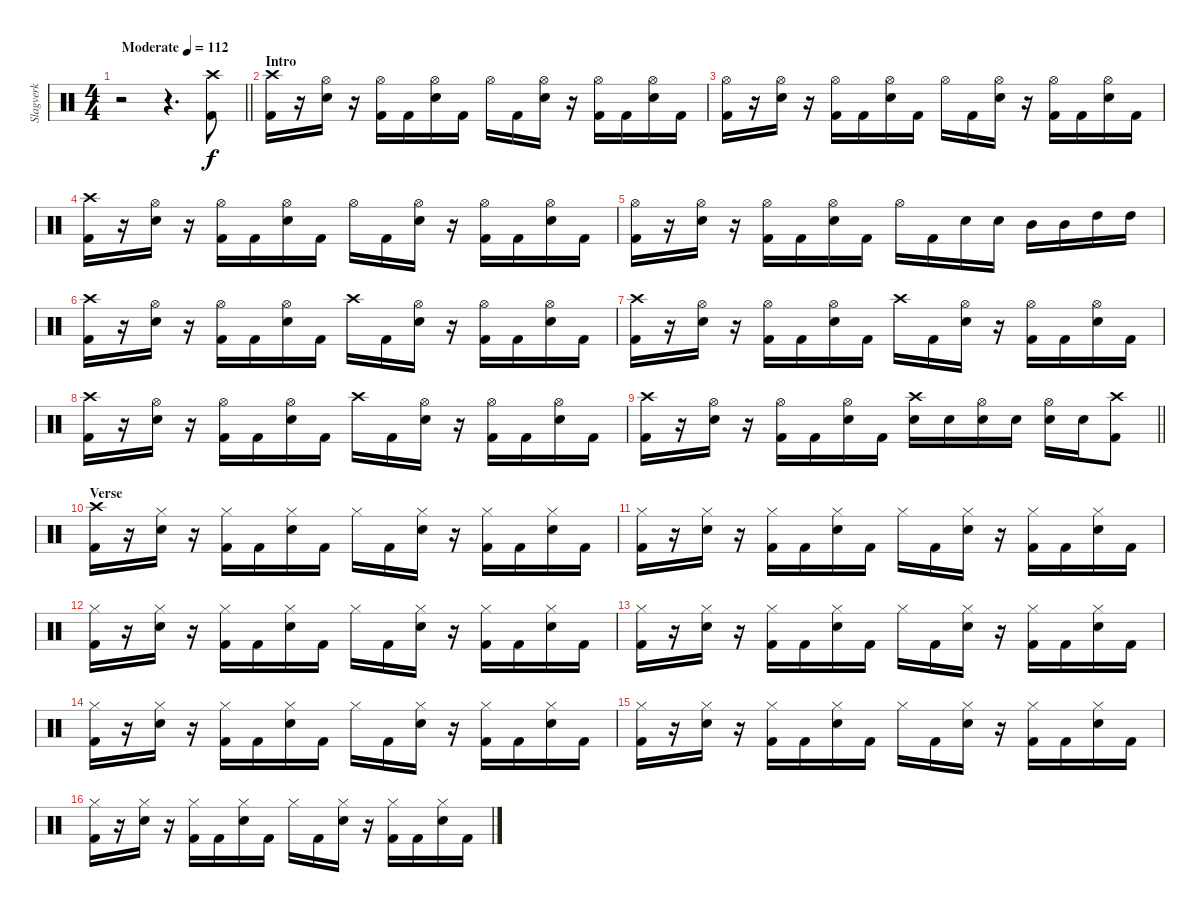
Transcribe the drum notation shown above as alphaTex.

\track ("Slagverk" "Slagverk") {instrument percussion}
\staff {score}
\articulation defaults
\ts (4 4)
\tempo (112 "Moderate")
\clef neutral
\barLineRight lightlight
\ks c
r.2{dy f} r.4{d} ("Crash high (hit)" "Kick (hit) 2").8 |
\section ("" "Intro")
("Crash high (hit)" "Kick (hit) 2").16 r.16 ("Hi-Hat (open)" "Snare (hit) 2").16 r.16 ("Hi-Hat (open)" "Kick (hit) 2").16 "Kick (hit) 2".16 ("Hi-Hat (open)" "Snare (hit) 2").16 "Kick (hit) 2".16 "Hi-Hat (open)".16 "Kick (hit) 2".16 ("Hi-Hat (open)" "Snare (hit) 2").16 r.16 ("Hi-Hat (open)" "Kick (hit) 2").16 "Kick (hit) 2".16 ("Hi-Hat (open)" "Snare (hit) 2").16 "Kick (hit) 2".16 |
("Hi-Hat (open)" "Kick (hit) 2").16 r.16 ("Hi-Hat (open)" "Snare (hit) 2").16 r.16 ("Hi-Hat (open)" "Kick (hit) 2").16 "Kick (hit) 2".16 ("Hi-Hat (open)" "Snare (hit) 2").16 "Kick (hit) 2".16 "Hi-Hat (open)".16 "Kick (hit) 2".16 ("Hi-Hat (open)" "Snare (hit) 2").16 r.16 ("Hi-Hat (open)" "Kick (hit) 2").16 "Kick (hit) 2".16 ("Hi-Hat (open)" "Snare (hit) 2").16 "Kick (hit) 2".16 |
("Crash high (hit)" "Kick (hit) 2").16 r.16 ("Hi-Hat (open)" "Snare (hit) 2").16 r.16 ("Hi-Hat (open)" "Kick (hit) 2").16 "Kick (hit) 2".16 ("Hi-Hat (open)" "Snare (hit) 2").16 "Kick (hit) 2".16 "Hi-Hat (open)".16 "Kick (hit) 2".16 ("Hi-Hat (open)" "Snare (hit) 2").16 r.16 ("Hi-Hat (open)" "Kick (hit) 2").16 "Kick (hit) 2".16 ("Hi-Hat (open)" "Snare (hit) 2").16 "Kick (hit) 2".16 |
("Hi-Hat (open)" "Kick (hit) 2").16 r.16 ("Hi-Hat (open)" "Snare (hit) 2").16 r.16 ("Hi-Hat (open)" "Kick (hit) 2").16 "Kick (hit) 2".16 ("Hi-Hat (open)" "Snare (hit) 2").16 "Kick (hit) 2".16 "Hi-Hat (open)".16 "Kick (hit) 2".16 "Electric Snare (hit)".16 "Electric Snare (hit)".16 "Mid Tom (hit)".16 "Mid Tom (hit)".16 "High Tom (hit)".16 "High Tom (hit)".16 |
("Crash high (hit)" "Kick (hit) 2").16 r.16 ("Hi-Hat (open)" "Snare (hit) 2").16 r.16 ("Hi-Hat (open)" "Kick (hit) 2").16 "Kick (hit) 2".16 ("Hi-Hat (open)" "Snare (hit) 2").16 "Kick (hit) 2".16 "Crash high (hit)".16 "Kick (hit) 2".16 ("Hi-Hat (open)" "Snare (hit) 2").16 r.16 ("Hi-Hat (open)" "Kick (hit) 2").16 "Kick (hit) 2".16 ("Hi-Hat (open)" "Snare (hit) 2").16 "Kick (hit) 2".16 |
("Crash high (hit)" "Kick (hit) 2").16 r.16 ("Hi-Hat (open)" "Snare (hit) 2").16 r.16 ("Hi-Hat (open)" "Kick (hit) 2").16 "Kick (hit) 2".16 ("Hi-Hat (open)" "Snare (hit) 2").16 "Kick (hit) 2".16 "Crash high (hit)".16 "Kick (hit) 2".16 ("Hi-Hat (open)" "Snare (hit) 2").16 r.16 ("Hi-Hat (open)" "Kick (hit) 2").16 "Kick (hit) 2".16 ("Hi-Hat (open)" "Snare (hit) 2").16 "Kick (hit) 2".16 |
("Crash high (hit)" "Kick (hit) 2").16 r.16 ("Hi-Hat (open)" "Snare (hit) 2").16 r.16 ("Hi-Hat (open)" "Kick (hit) 2").16 "Kick (hit) 2".16 ("Hi-Hat (open)" "Snare (hit) 2").16 "Kick (hit) 2".16 "Crash high (hit)".16 "Kick (hit) 2".16 ("Hi-Hat (open)" "Snare (hit) 2").16 r.16 ("Hi-Hat (open)" "Kick (hit) 2").16 "Kick (hit) 2".16 ("Hi-Hat (open)" "Snare (hit) 2").16 "Kick (hit) 2".16 |
\barLineRight lightlight
("Crash high (hit)" "Kick (hit) 2").16 r.16 ("Hi-Hat (open)" "Snare (hit) 2").16 r.16 ("Hi-Hat (open)" "Kick (hit) 2").16 "Kick (hit) 2".16 ("Hi-Hat (open)" "Snare (hit) 2").16 "Kick (hit) 2".16 ("Crash high (hit)" "Snare (hit) 2").16 "Snare (hit) 2".16 ("Hi-Hat (open)" "Snare (hit) 2").16 "Snare (hit) 2".16 ("Hi-Hat (open)" "Snare (hit) 2").16 "Snare (hit) 2".16 ("Crash high (hit)" "Kick (hit) 2").8 |
\section ("" "Verse")
("Crash high (hit)" "Kick (hit) 2").16 r.16 ("Hi-Hat (closed)" "Snare (hit) 2").16 r.16 ("Hi-Hat (closed)" "Kick (hit) 2").16 "Kick (hit) 2".16 ("Hi-Hat (closed)" "Snare (hit) 2").16 "Kick (hit) 2".16 "Hi-Hat (closed)".16 "Kick (hit) 2".16 ("Hi-Hat (closed)" "Snare (hit) 2").16 r.16 ("Hi-Hat (closed)" "Kick (hit) 2").16 "Kick (hit) 2".16 ("Hi-Hat (closed)" "Snare (hit) 2").16 "Kick (hit) 2".16 |
("Hi-Hat (closed)" "Kick (hit) 2").16 r.16 ("Hi-Hat (closed)" "Snare (hit) 2").16 r.16 ("Hi-Hat (closed)" "Kick (hit) 2").16 "Kick (hit) 2".16 ("Hi-Hat (closed)" "Snare (hit) 2").16 "Kick (hit) 2".16 "Hi-Hat (closed)".16 "Kick (hit) 2".16 ("Hi-Hat (closed)" "Snare (hit) 2").16 r.16 ("Hi-Hat (closed)" "Kick (hit) 2").16 "Kick (hit) 2".16 ("Hi-Hat (closed)" "Snare (hit) 2").16 "Kick (hit) 2".16 |
("Hi-Hat (closed)" "Kick (hit) 2").16 r.16 ("Hi-Hat (closed)" "Snare (hit) 2").16 r.16 ("Hi-Hat (closed)" "Kick (hit) 2").16 "Kick (hit) 2".16 ("Hi-Hat (closed)" "Snare (hit) 2").16 "Kick (hit) 2".16 "Hi-Hat (closed)".16 "Kick (hit) 2".16 ("Hi-Hat (closed)" "Snare (hit) 2").16 r.16 ("Hi-Hat (closed)" "Kick (hit) 2").16 "Kick (hit) 2".16 ("Hi-Hat (closed)" "Snare (hit) 2").16 "Kick (hit) 2".16 |
("Hi-Hat (closed)" "Kick (hit) 2").16 r.16 ("Hi-Hat (closed)" "Snare (hit) 2").16 r.16 ("Hi-Hat (closed)" "Kick (hit) 2").16 "Kick (hit) 2".16 ("Hi-Hat (closed)" "Snare (hit) 2").16 "Kick (hit) 2".16 "Hi-Hat (closed)".16 "Kick (hit) 2".16 ("Hi-Hat (closed)" "Snare (hit) 2").16 r.16 ("Hi-Hat (closed)" "Kick (hit) 2").16 "Kick (hit) 2".16 ("Hi-Hat (closed)" "Snare (hit) 2").16 "Kick (hit) 2".16 |
("Hi-Hat (closed)" "Kick (hit) 2").16 r.16 ("Hi-Hat (closed)" "Snare (hit) 2").16 r.16 ("Hi-Hat (closed)" "Kick (hit) 2").16 "Kick (hit) 2".16 ("Hi-Hat (closed)" "Snare (hit) 2").16 "Kick (hit) 2".16 "Hi-Hat (closed)".16 "Kick (hit) 2".16 ("Hi-Hat (closed)" "Snare (hit) 2").16 r.16 ("Hi-Hat (closed)" "Kick (hit) 2").16 "Kick (hit) 2".16 ("Hi-Hat (closed)" "Snare (hit) 2").16 "Kick (hit) 2".16 |
("Hi-Hat (closed)" "Kick (hit) 2").16 r.16 ("Hi-Hat (closed)" "Snare (hit) 2").16 r.16 ("Hi-Hat (closed)" "Kick (hit) 2").16 "Kick (hit) 2".16 ("Hi-Hat (closed)" "Snare (hit) 2").16 "Kick (hit) 2".16 "Hi-Hat (closed)".16 "Kick (hit) 2".16 ("Hi-Hat (closed)" "Snare (hit) 2").16 r.16 ("Hi-Hat (closed)" "Kick (hit) 2").16 "Kick (hit) 2".16 ("Hi-Hat (closed)" "Snare (hit) 2").16 "Kick (hit) 2".16 |
("Hi-Hat (closed)" "Kick (hit) 2").16 r.16 ("Hi-Hat (closed)" "Snare (hit) 2").16 r.16 ("Hi-Hat (closed)" "Kick (hit) 2").16 "Kick (hit) 2".16 ("Hi-Hat (closed)" "Snare (hit) 2").16 "Kick (hit) 2".16 "Hi-Hat (closed)".16 "Kick (hit) 2".16 ("Hi-Hat (closed)" "Snare (hit) 2").16 r.16 ("Hi-Hat (closed)" "Kick (hit) 2").16 "Kick (hit) 2".16 ("Hi-Hat (closed)" "Snare (hit) 2").16 "Kick (hit) 2".16
